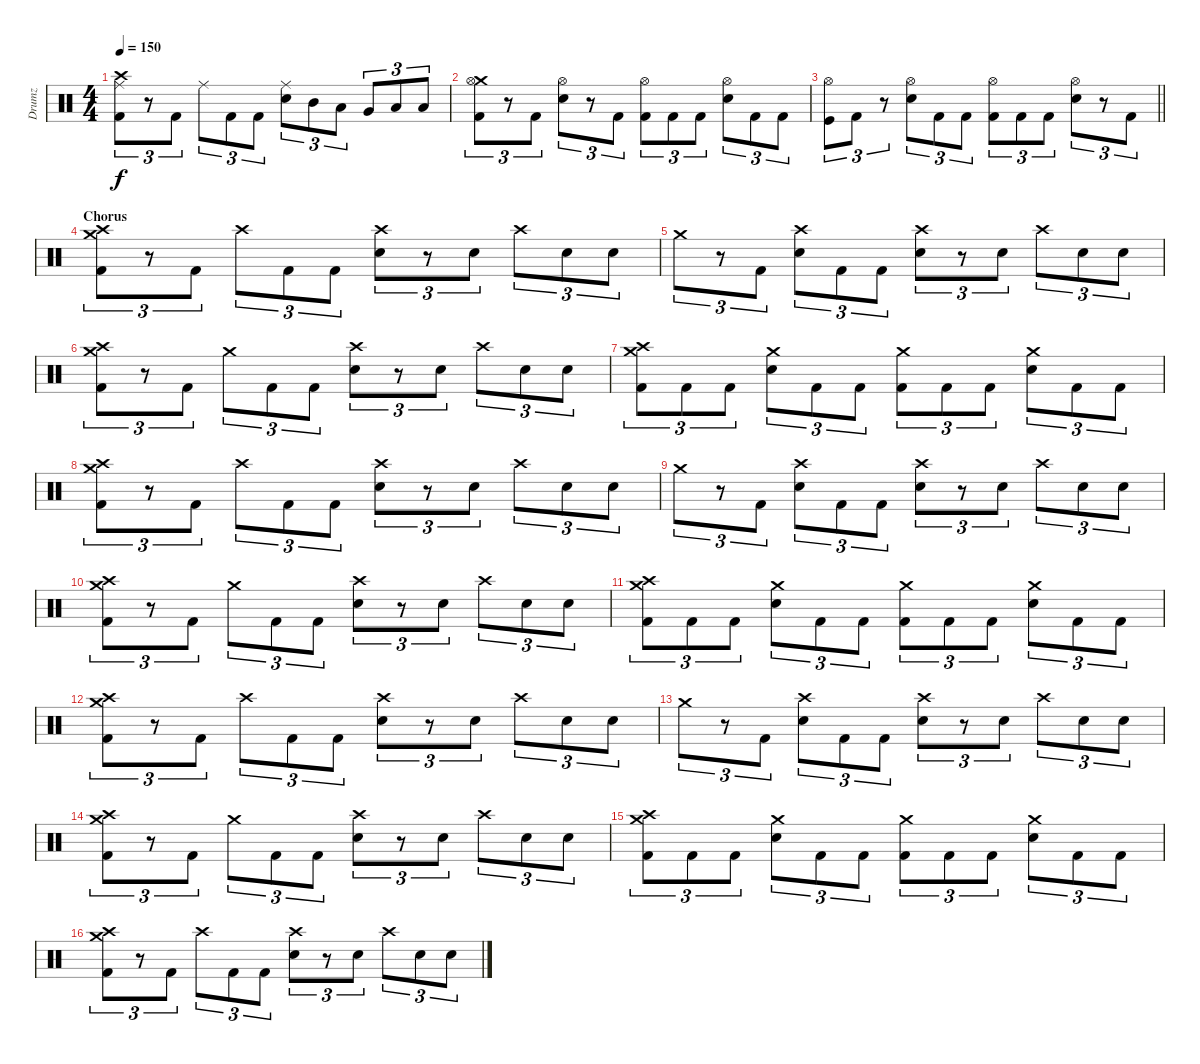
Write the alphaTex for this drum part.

\track ("Drumz" "Drumz") {instrument percussion}
\staff {score}
\articulation defaults
\ts (4 4)
\tempo 150
\clef neutral
\ks c
("Kick (hit) 2" "Crash high (hit)" "Ride (middle)").8{tu (3 2) dy f} r.8{tu (3 2)} "Kick (hit) 2".8{tu (3 2)} "Ride (middle)".8{tu (3 2)} "Kick (hit) 2".8{tu (3 2)} "Kick (hit) 2".8{tu (3 2)} ("Snare (hit) 2" "Ride (middle)").8{tu (3 2)} "Mid Tom (hit)".8{tu (3 2)} "Low Tom (hit)".8{tu (3 2)} "Very Low Tom (hit)".8{tu (3 2)} "Low Floor Tom (hit)".8{tu (3 2)} "Low Floor Tom (hit)".8{tu (3 2)} |
("Crash medium (hit)" "Hi-Hat (open)" "Kick (hit) 2").8{tu (3 2)} r.8{tu (3 2)} "Kick (hit) 2".8{tu (3 2)} ("Hi-Hat (open)" "Snare (hit) 2").8{tu (3 2)} r.8{tu (3 2)} "Kick (hit) 2".8{tu (3 2)} ("Kick (hit) 2" "Hi-Hat (open)").8{tu (3 2)} "Kick (hit) 2".8{tu (3 2)} "Kick (hit) 2".8{tu (3 2)} ("Hi-Hat (open)" "Snare (hit) 2").8{tu (3 2)} "Kick (hit) 2".8{tu (3 2)} "Kick (hit) 2".8{tu (3 2)} |
\barLineRight lightlight
("Kick (hit)" "Hi-Hat (open)").8{tu (3 2)} "Kick (hit) 2".8{tu (3 2)} r.8{tu (3 2)} ("Hi-Hat (open)" "Snare (hit) 2").8{tu (3 2)} "Kick (hit) 2".8{tu (3 2)} "Kick (hit) 2".8{tu (3 2)} ("Kick (hit) 2" "Hi-Hat (open)").8{tu (3 2)} "Kick (hit) 2".8{tu (3 2)} "Kick (hit) 2".8{tu (3 2)} ("Hi-Hat (open)" "Snare (hit) 2").8{tu (3 2)} r.8{tu (3 2)} "Kick (hit) 2".8{tu (3 2)} |
\section ("" "Chorus")
("Crash high (hit)" "Crash medium (hit)" "Kick (hit) 2").8{tu (3 2)} r.8{tu (3 2)} "Kick (hit) 2".8{tu (3 2)} "Crash high (hit)".8{tu (3 2)} "Kick (hit) 2".8{tu (3 2)} "Kick (hit) 2".8{tu (3 2)} ("Crash high (hit)" "Snare (hit) 2").8{tu (3 2)} r.8{tu (3 2)} "Snare (hit) 2".8{tu (3 2)} "Crash high (hit)".8{tu (3 2)} "Snare (hit) 2".8{tu (3 2)} "Snare (hit) 2".8{tu (3 2)} |
"Crash medium (hit)".8{tu (3 2)} r.8{tu (3 2)} "Kick (hit) 2".8{tu (3 2)} ("Snare (hit) 2" "Crash high (hit)").8{tu (3 2)} "Kick (hit) 2".8{tu (3 2)} "Kick (hit) 2".8{tu (3 2)} ("Crash high (hit)" "Snare (hit) 2").8{tu (3 2)} r.8{tu (3 2)} "Snare (hit) 2".8{tu (3 2)} "Crash high (hit)".8{tu (3 2)} "Snare (hit) 2".8{tu (3 2)} "Snare (hit) 2".8{tu (3 2)} |
("Crash medium (hit)" "Crash high (hit)" "Kick (hit) 2").8{tu (3 2)} r.8{tu (3 2)} "Kick (hit) 2".8{tu (3 2)} "Crash medium (hit)".8{tu (3 2)} "Kick (hit) 2".8{tu (3 2)} "Kick (hit) 2".8{tu (3 2)} ("Crash high (hit)" "Snare (hit) 2").8{tu (3 2)} r.8{tu (3 2)} "Snare (hit) 2".8{tu (3 2)} "Crash high (hit)".8{tu (3 2)} "Snare (hit) 2".8{tu (3 2)} "Snare (hit) 2".8{tu (3 2)} |
("Crash medium (hit)" "Crash high (hit)" "Kick (hit) 2").8{tu (3 2)} "Kick (hit) 2".8{tu (3 2)} "Kick (hit) 2".8{tu (3 2)} ("Crash medium (hit)" "Snare (hit) 2").8{tu (3 2)} "Kick (hit) 2".8{tu (3 2)} "Kick (hit) 2".8{tu (3 2)} ("Kick (hit) 2" "Crash medium (hit)").8{tu (3 2)} "Kick (hit) 2".8{tu (3 2)} "Kick (hit) 2".8{tu (3 2)} ("Crash medium (hit)" "Snare (hit) 2").8{tu (3 2)} "Kick (hit) 2".8{tu (3 2)} "Kick (hit) 2".8{tu (3 2)} |
("Crash high (hit)" "Crash medium (hit)" "Kick (hit) 2").8{tu (3 2)} r.8{tu (3 2)} "Kick (hit) 2".8{tu (3 2)} "Crash high (hit)".8{tu (3 2)} "Kick (hit) 2".8{tu (3 2)} "Kick (hit) 2".8{tu (3 2)} ("Crash high (hit)" "Snare (hit) 2").8{tu (3 2)} r.8{tu (3 2)} "Snare (hit) 2".8{tu (3 2)} "Crash high (hit)".8{tu (3 2)} "Snare (hit) 2".8{tu (3 2)} "Snare (hit) 2".8{tu (3 2)} |
"Crash medium (hit)".8{tu (3 2)} r.8{tu (3 2)} "Kick (hit) 2".8{tu (3 2)} ("Snare (hit) 2" "Crash high (hit)").8{tu (3 2)} "Kick (hit) 2".8{tu (3 2)} "Kick (hit) 2".8{tu (3 2)} ("Crash high (hit)" "Snare (hit) 2").8{tu (3 2)} r.8{tu (3 2)} "Snare (hit) 2".8{tu (3 2)} "Crash high (hit)".8{tu (3 2)} "Snare (hit) 2".8{tu (3 2)} "Snare (hit) 2".8{tu (3 2)} |
("Crash medium (hit)" "Crash high (hit)" "Kick (hit) 2").8{tu (3 2)} r.8{tu (3 2)} "Kick (hit) 2".8{tu (3 2)} "Crash medium (hit)".8{tu (3 2)} "Kick (hit) 2".8{tu (3 2)} "Kick (hit) 2".8{tu (3 2)} ("Crash high (hit)" "Snare (hit) 2").8{tu (3 2)} r.8{tu (3 2)} "Snare (hit) 2".8{tu (3 2)} "Crash high (hit)".8{tu (3 2)} "Snare (hit) 2".8{tu (3 2)} "Snare (hit) 2".8{tu (3 2)} |
("Crash medium (hit)" "Crash high (hit)" "Kick (hit) 2").8{tu (3 2)} "Kick (hit) 2".8{tu (3 2)} "Kick (hit) 2".8{tu (3 2)} ("Crash medium (hit)" "Snare (hit) 2").8{tu (3 2)} "Kick (hit) 2".8{tu (3 2)} "Kick (hit) 2".8{tu (3 2)} ("Kick (hit) 2" "Crash medium (hit)").8{tu (3 2)} "Kick (hit) 2".8{tu (3 2)} "Kick (hit) 2".8{tu (3 2)} ("Crash medium (hit)" "Snare (hit) 2").8{tu (3 2)} "Kick (hit) 2".8{tu (3 2)} "Kick (hit) 2".8{tu (3 2)} |
("Crash high (hit)" "Crash medium (hit)" "Kick (hit) 2").8{tu (3 2)} r.8{tu (3 2)} "Kick (hit) 2".8{tu (3 2)} "Crash high (hit)".8{tu (3 2)} "Kick (hit) 2".8{tu (3 2)} "Kick (hit) 2".8{tu (3 2)} ("Crash high (hit)" "Snare (hit) 2").8{tu (3 2)} r.8{tu (3 2)} "Snare (hit) 2".8{tu (3 2)} "Crash high (hit)".8{tu (3 2)} "Snare (hit) 2".8{tu (3 2)} "Snare (hit) 2".8{tu (3 2)} |
"Crash medium (hit)".8{tu (3 2)} r.8{tu (3 2)} "Kick (hit) 2".8{tu (3 2)} ("Snare (hit) 2" "Crash high (hit)").8{tu (3 2)} "Kick (hit) 2".8{tu (3 2)} "Kick (hit) 2".8{tu (3 2)} ("Crash high (hit)" "Snare (hit) 2").8{tu (3 2)} r.8{tu (3 2)} "Snare (hit) 2".8{tu (3 2)} "Crash high (hit)".8{tu (3 2)} "Snare (hit) 2".8{tu (3 2)} "Snare (hit) 2".8{tu (3 2)} |
("Crash medium (hit)" "Crash high (hit)" "Kick (hit) 2").8{tu (3 2)} r.8{tu (3 2)} "Kick (hit) 2".8{tu (3 2)} "Crash medium (hit)".8{tu (3 2)} "Kick (hit) 2".8{tu (3 2)} "Kick (hit) 2".8{tu (3 2)} ("Crash high (hit)" "Snare (hit) 2").8{tu (3 2)} r.8{tu (3 2)} "Snare (hit) 2".8{tu (3 2)} "Crash high (hit)".8{tu (3 2)} "Snare (hit) 2".8{tu (3 2)} "Snare (hit) 2".8{tu (3 2)} |
("Crash medium (hit)" "Crash high (hit)" "Kick (hit) 2").8{tu (3 2)} "Kick (hit) 2".8{tu (3 2)} "Kick (hit) 2".8{tu (3 2)} ("Crash medium (hit)" "Snare (hit) 2").8{tu (3 2)} "Kick (hit) 2".8{tu (3 2)} "Kick (hit) 2".8{tu (3 2)} ("Kick (hit) 2" "Crash medium (hit)").8{tu (3 2)} "Kick (hit) 2".8{tu (3 2)} "Kick (hit) 2".8{tu (3 2)} ("Crash medium (hit)" "Snare (hit) 2").8{tu (3 2)} "Kick (hit) 2".8{tu (3 2)} "Kick (hit) 2".8{tu (3 2)} |
("Crash high (hit)" "Crash medium (hit)" "Kick (hit) 2").8{tu (3 2)} r.8{tu (3 2)} "Kick (hit) 2".8{tu (3 2)} "Crash high (hit)".8{tu (3 2)} "Kick (hit) 2".8{tu (3 2)} "Kick (hit) 2".8{tu (3 2)} ("Crash high (hit)" "Snare (hit) 2").8{tu (3 2)} r.8{tu (3 2)} "Snare (hit) 2".8{tu (3 2)} "Crash high (hit)".8{tu (3 2)} "Snare (hit) 2".8{tu (3 2)} "Snare (hit) 2".8{tu (3 2)}
